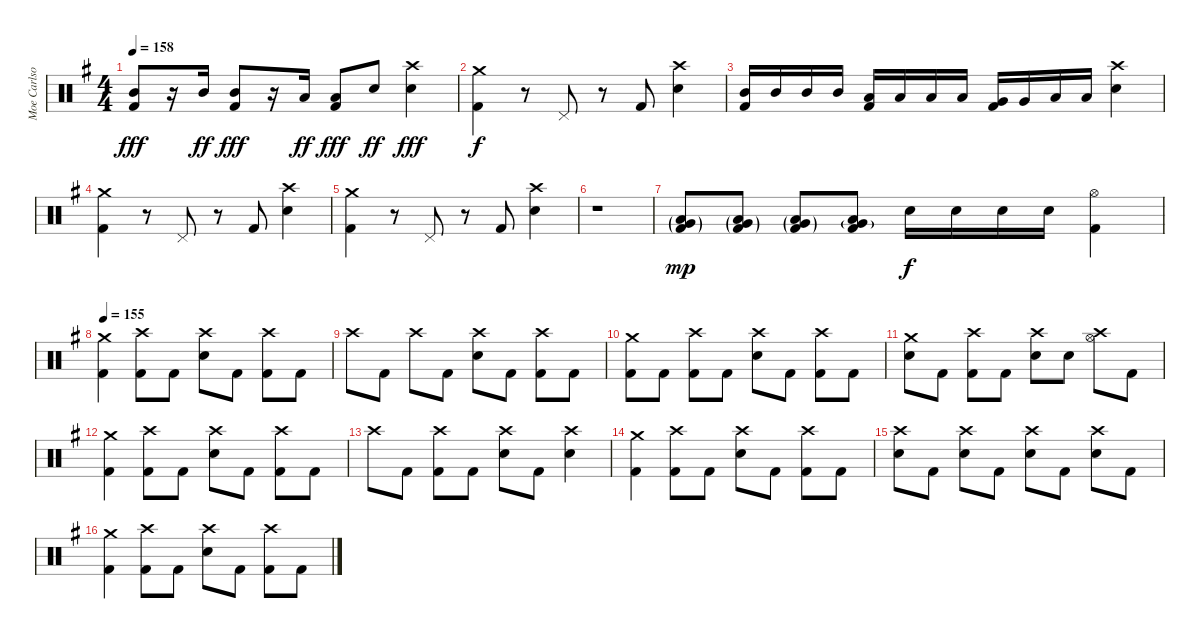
\track ("Moe Carlson" "Moe Carlso") {instrument percussion}
\staff {score}
\articulation defaults
\ts (4 4)
\tempo 158
\clef neutral
\ks g
("Mid Tom (hit)" "Kick (hit) 2").8{dy fff} r.16 "Mid Tom (hit)".16{dy ff} ("Mid Tom (hit)" "Kick (hit) 2").8{dy fff} r.16 "Low Tom (hit)".16{dy ff} ("Low Tom (hit)" "Kick (hit) 2").8{dy fff} "Electric Snare (hit)".8{dy ff} ("Crash high (hit)" "Electric Snare (hit)").4{dy fff} |
("Crash medium (hit)" "Kick (hit) 2").4{dy f} r.8 "Pedal Hi-Hat (hit)".8 r.8 "Kick (hit) 2".8 ("Crash high (hit)" "Electric Snare (hit)").4 |
("Mid Tom (hit)" "Kick (hit) 2").16 "Mid Tom (hit)".16 "Mid Tom (hit)".16 "Mid Tom (hit)".16 ("Low Tom (hit)" "Kick (hit) 2").16 "Low Tom (hit)".16 "Low Tom (hit)".16 "Low Tom (hit)".16 ("Very Low Tom (hit)" "Kick (hit) 2").16 "Very Low Tom (hit)".16 "Low Floor Tom (hit)".16 "Low Floor Tom (hit)".16 ("Crash high (hit)" "Electric Snare (hit)").4 |
("Crash medium (hit)" "Kick (hit) 2").4 r.8 "Pedal Hi-Hat (hit)".8 r.8 "Kick (hit) 2".8 ("Crash high (hit)" "Electric Snare (hit)").4 |
("Crash medium (hit)" "Kick (hit) 2").4 r.8 "Pedal Hi-Hat (hit)".8 r.8 "Kick (hit) 2".8 ("Crash high (hit)" "Electric Snare (hit)").4 |
r.1 |
("Very Low Tom (hit)"{g} "Low Floor Tom (hit)"{g} "Kick (hit) 2"{g}).8{dy mp} ("Very Low Tom (hit)"{g} "Low Floor Tom (hit)"{g} "Kick (hit) 2"{g}).8 ("Very Low Tom (hit)"{g} "Low Floor Tom (hit)"{g} "Kick (hit) 2"{g}).8 ("Very Low Tom (hit)"{g} "Low Floor Tom (hit)" "Kick (hit) 2").8 "Electric Snare (hit)".16{dy f} "Electric Snare (hit)".16 "Electric Snare (hit)".16 "Electric Snare (hit)".16 ("Hi-Hat (open)" "Kick (hit) 2").4 |
\tempo 155
("Crash medium (hit)" "Kick (hit) 2").4 ("Crash high (hit)" "Kick (hit) 2").8 "Kick (hit) 2".8 ("Crash high (hit)" "Electric Snare (hit)").8 "Kick (hit) 2".8 ("Crash high (hit)" "Kick (hit) 2").8 "Kick (hit) 2".8 |
"Crash high (hit)".8 "Kick (hit) 2".8 "Crash high (hit)".8 "Kick (hit) 2".8 ("Crash high (hit)" "Electric Snare (hit)").8 "Kick (hit) 2".8 ("Crash high (hit)" "Kick (hit) 2").8 "Kick (hit) 2".8 |
("Crash medium (hit)" "Kick (hit) 2").8 "Kick (hit) 2".8 ("Crash high (hit)" "Kick (hit) 2").8 "Kick (hit) 2".8 ("Crash high (hit)" "Electric Snare (hit)").8 "Kick (hit) 2".8 ("Crash high (hit)" "Kick (hit) 2").8 "Kick (hit) 2".8 |
("Crash medium (hit)" "Electric Snare (hit)").8 "Kick (hit) 2".8 ("Crash high (hit)" "Kick (hit) 2").8 "Kick (hit) 2".8 ("Crash high (hit)" "Electric Snare (hit)").8 "Electric Snare (hit)".8 ("Crash high (hit)" "Hi-Hat (open)").8 "Kick (hit) 2".8 |
("Crash medium (hit)" "Kick (hit) 2").4 ("Crash high (hit)" "Kick (hit) 2").8 "Kick (hit) 2".8 ("Crash high (hit)" "Electric Snare (hit)").8 "Kick (hit) 2".8 ("Crash high (hit)" "Kick (hit) 2").8 "Kick (hit) 2".8 |
"Crash high (hit)".8 "Kick (hit) 2".8 ("Crash high (hit)" "Kick (hit) 2").8 "Kick (hit) 2".8 ("Crash high (hit)" "Electric Snare (hit)").8 "Kick (hit) 2".8 ("Crash high (hit)" "Electric Snare (hit)").4 |
("Crash medium (hit)" "Kick (hit) 2").4 ("Crash high (hit)" "Kick (hit) 2").8 "Kick (hit) 2".8 ("Crash high (hit)" "Electric Snare (hit)").8 "Kick (hit) 2".8 ("Crash high (hit)" "Kick (hit) 2").8 "Kick (hit) 2".8 |
("Crash high (hit)" "Electric Snare (hit)").8 "Kick (hit) 2".8 ("Crash high (hit)" "Electric Snare (hit)").8 "Kick (hit) 2".8 ("Crash high (hit)" "Electric Snare (hit)").8 "Kick (hit) 2".8 ("Crash high (hit)" "Electric Snare (hit)").8 "Kick (hit) 2".8 |
("Crash medium (hit)" "Kick (hit) 2").4 ("Crash high (hit)" "Kick (hit) 2").8 "Kick (hit) 2".8 ("Crash high (hit)" "Electric Snare (hit)").8 "Kick (hit) 2".8 ("Crash high (hit)" "Kick (hit) 2").8 "Kick (hit) 2".8
